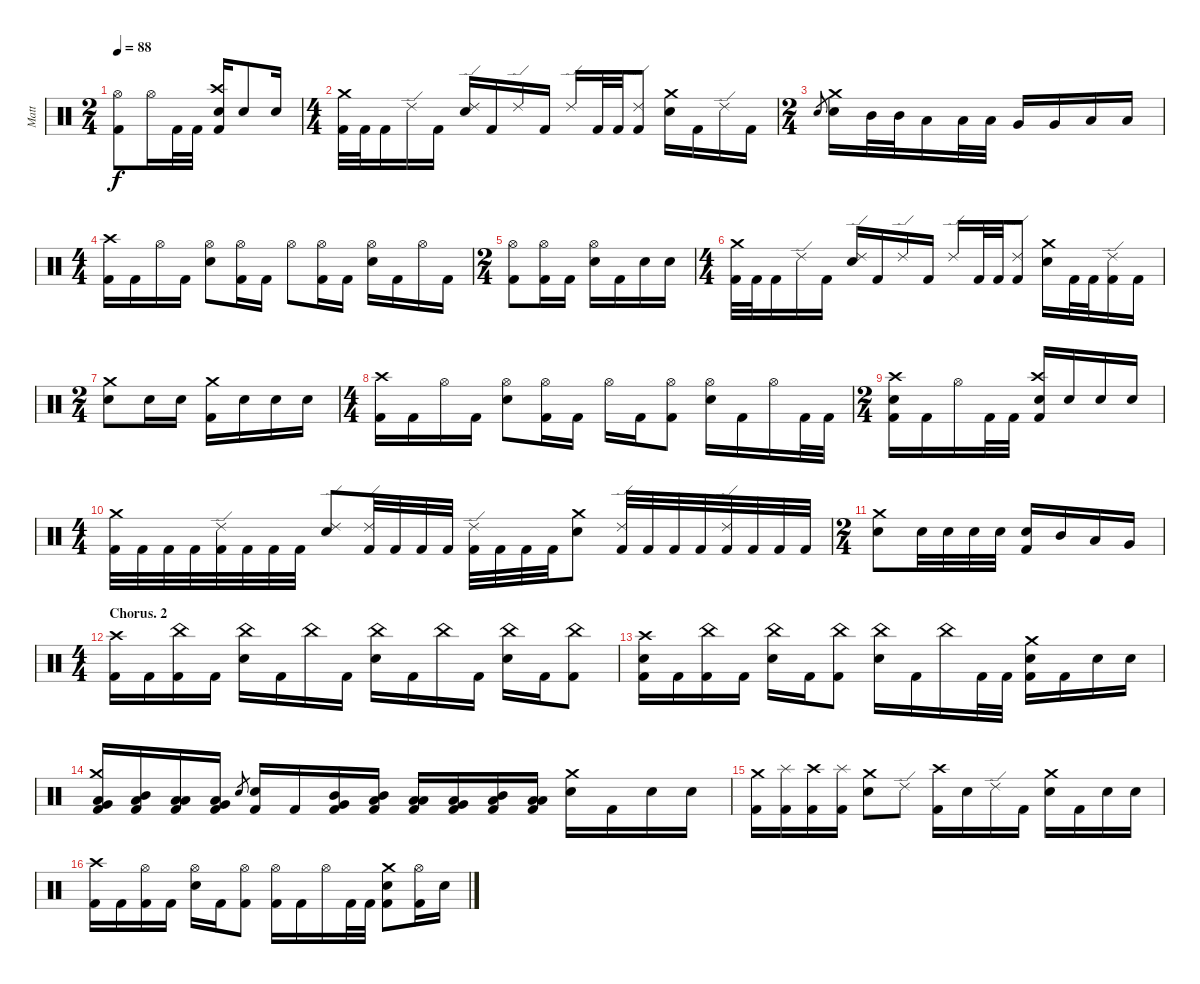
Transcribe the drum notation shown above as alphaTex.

\track ("Matt" "Matt") {instrument percussion}
\staff {score}
\articulation defaults
\ts (2 4)
\tempo 88
\clef neutral
\ks c
("Hi-Hat (open)" "Kick (hit) 2").8{dy f} "Hi-Hat (open)".16 "Kick (hit) 2".32 "Kick (hit) 2".32 ("Crash high (hit)" "Electric Snare (hit)" "Kick (hit) 2").16 "Electric Snare (hit)".8 "Electric Snare (hit)".16 |
\ts (4 4)
("Crash medium (hit)" "Kick (hit) 2").32 "Kick (hit) 2".32 "Kick (hit) 2".16 "Ride (edge) 2".16 "Kick (hit) 2".16 ("Ride (edge) 2" "Electric Snare (hit)").16 "Kick (hit) 2".16 "Ride (edge) 2".16 "Kick (hit) 2".16 "Ride (edge) 2".16 "Kick (hit) 2".32 "Kick (hit) 2".32 ("Ride (edge) 2" "Kick (hit) 2").8 ("Crash medium (hit)" "Electric Snare (hit)").16 "Kick (hit) 2".16 "Ride (edge) 2".16 "Kick (hit) 2".16 |
\ts (2 4)
"Electric Snare (hit)".8{gr} ("Crash medium (hit)" "Electric Snare (hit)").16 "Mid Tom (hit)".32 "Mid Tom (hit)".32 "Low Tom (hit)".16 "Low Tom (hit)".32 "Low Tom (hit)".32 "Very Low Tom (hit)".16 "Very Low Tom (hit)".16 "Low Floor Tom (hit)".16 "Low Floor Tom (hit)".16 |
\ts (4 4)
("Crash high (hit)" "Kick (hit) 2").16 "Kick (hit) 2".16 "Hi-Hat (open)".16 "Kick (hit) 2".16 ("Hi-Hat (open)" "Electric Snare (hit)").8 ("Hi-Hat (open)" "Kick (hit) 2").16 "Kick (hit) 2".16 "Hi-Hat (open)".8 ("Hi-Hat (open)" "Kick (hit) 2").16 "Kick (hit) 2".16 ("Hi-Hat (open)" "Electric Snare (hit)").16 "Kick (hit) 2".16 "Hi-Hat (open)".16 "Kick (hit) 2".16 |
\ts (2 4)
("Hi-Hat (open)" "Kick (hit) 2").8 ("Hi-Hat (open)" "Kick (hit) 2").16 "Kick (hit) 2".16 ("Hi-Hat (open)" "Electric Snare (hit)").16 "Kick (hit) 2".16 "Electric Snare (hit)".16 "Electric Snare (hit)".16 |
\ts (4 4)
("Crash medium (hit)" "Kick (hit) 2").32 "Kick (hit) 2".32 "Kick (hit) 2".16 "Ride (edge) 2".16 "Kick (hit) 2".16 ("Ride (edge) 2" "Electric Snare (hit)").16 "Kick (hit) 2".16 "Ride (edge) 2".16 "Kick (hit) 2".16 "Ride (edge) 2".16 "Kick (hit) 2".32 "Kick (hit) 2".32 ("Ride (edge) 2" "Kick (hit) 2").8 ("Crash medium (hit)" "Electric Snare (hit)").16 "Kick (hit) 2".32 "Kick (hit) 2".32 ("Ride (edge) 2" "Kick (hit) 2").16 "Kick (hit) 2".16 |
\ts (2 4)
("Crash medium (hit)" "Electric Snare (hit)").8 "Electric Snare (hit)".16 "Electric Snare (hit)".16 ("Crash medium (hit)" "Kick (hit) 2").16 "Electric Snare (hit)".16 "Electric Snare (hit)".16 "Electric Snare (hit)".16 |
\ts (4 4)
("Crash high (hit)" "Kick (hit) 2").16 "Kick (hit) 2".16 "Hi-Hat (open)".16 "Kick (hit) 2".16 ("Hi-Hat (open)" "Electric Snare (hit)").8 ("Hi-Hat (open)" "Kick (hit) 2").16 "Kick (hit) 2".16 "Hi-Hat (open)".16 "Kick (hit) 2".16 ("Hi-Hat (open)" "Kick (hit) 2").8 ("Hi-Hat (open)" "Electric Snare (hit)").16 "Kick (hit) 2".16 "Hi-Hat (open)".16 "Kick (hit) 2".32 "Kick (hit) 2".32 |
\ts (2 4)
("Crash high (hit)" "Electric Snare (hit)" "Kick (hit) 2").16 "Kick (hit) 2".16 "Hi-Hat (open)".16 "Kick (hit) 2".32 "Kick (hit) 2".32 ("Crash high (hit)" "Electric Snare (hit)" "Kick (hit) 2").16 "Electric Snare (hit)".16 "Electric Snare (hit)".16 "Electric Snare (hit)".16 |
\ts (4 4)
("Crash medium (hit)" "Kick (hit) 2").32 "Kick (hit) 2".32 "Kick (hit) 2".32 "Kick (hit) 2".32 ("Ride (edge) 2" "Kick (hit) 2").32 "Kick (hit) 2".32 "Kick (hit) 2".32 "Kick (hit) 2".32 ("Ride (edge) 2" "Electric Snare (hit)").8 ("Ride (edge) 2" "Kick (hit) 2").32 "Kick (hit) 2".32 "Kick (hit) 2".32 "Kick (hit) 2".32 ("Ride (edge) 2" "Kick (hit) 2").32 "Kick (hit) 2".32 "Kick (hit) 2".32 "Kick (hit) 2".32 ("Crash medium (hit)" "Electric Snare (hit)").8 ("Ride (edge) 2" "Kick (hit) 2").32 "Kick (hit) 2".32 "Kick (hit) 2".32 "Kick (hit) 2".32 ("Ride (edge) 2" "Kick (hit) 2").32 "Kick (hit) 2".32 "Kick (hit) 2".32 "Kick (hit) 2".32 |
\ts (2 4)
("Crash medium (hit)" "Electric Snare (hit)").8 "Electric Snare (hit)".32 "Electric Snare (hit)".32 "Electric Snare (hit)".32 "Electric Snare (hit)".32 ("Electric Snare (hit)" "Kick (hit) 2").16 "Mid Tom (hit)".16 "Low Tom (hit)".16 "Very Low Tom (hit)".16 |
\ts (4 4)
\section ("" "Chorus. 2")
("Crash high (hit)" "Kick (hit) 2").16 "Kick (hit) 2".16 ("China (hit)" "Kick (hit) 2").16 "Kick (hit) 2".16 ("China (hit)" "Electric Snare (hit)").16 "Kick (hit) 2".16 "China (hit)".16 "Kick (hit) 2".16 ("China (hit)" "Electric Snare (hit)").16 "Kick (hit) 2".16 "China (hit)".16 "Kick (hit) 2".16 ("China (hit)" "Electric Snare (hit)").16 "Kick (hit) 2".16 ("China (hit)" "Kick (hit) 2").8 |
("Crash high (hit)" "Electric Snare (hit)" "Kick (hit) 2").16 "Kick (hit) 2".16 ("China (hit)" "Kick (hit) 2").16 "Kick (hit) 2".16 ("China (hit)" "Electric Snare (hit)").16 "Kick (hit) 2".16 ("China (hit)" "Kick (hit) 2").8 ("China (hit)" "Electric Snare (hit)").16 "Kick (hit) 2".16 "China (hit)".16 "Kick (hit) 2".32 "Kick (hit) 2".32 ("Crash medium (hit)" "Electric Snare (hit)" "Kick (hit) 2").16 "Kick (hit) 2".16 "Electric Snare (hit)".16 "Electric Snare (hit)".16 |
("Crash medium (hit)" "Low Tom (hit)" "Very Low Tom (hit)" "Kick (hit) 2").16 ("Low Tom (hit)" "Mid Tom (hit)" "Kick (hit) 2").16 ("Low Tom (hit)" "Low Tom (hit)" "Kick (hit) 2").16 ("Low Tom (hit)" "Very Low Tom (hit)" "Kick (hit) 2").16 "Electric Snare (hit)".8{gr} ("Electric Snare (hit)" "Kick (hit) 2").16 "Kick (hit) 2".16 ("Mid Tom (hit)" "Very Low Tom (hit)" "Kick (hit) 2").16 ("Low Tom (hit)" "Mid Tom (hit)" "Kick (hit) 2").16 ("Low Tom (hit)" "Low Tom (hit)" "Kick (hit) 2").16 ("Low Tom (hit)" "Very Low Tom (hit)" "Kick (hit) 2").16 ("Low Tom (hit)" "Mid Tom (hit)" "Kick (hit) 2").16 ("Low Tom (hit)" "Low Tom (hit)" "Kick (hit) 2").16 ("Crash medium (hit)" "Electric Snare (hit)").16 "Kick (hit) 2".16 "Electric Snare (hit)".16 "Electric Snare (hit)".16 |
("Crash medium (hit)" "Kick (hit) 2").16 ("Splash (hit)" "Kick (hit) 2").16 ("Crash high (hit)" "Kick (hit) 2").16 ("Splash (hit)" "Kick (hit) 2").16 ("Crash medium (hit)" "Electric Snare (hit)").8 "Ride (edge) 2".8 ("Crash high (hit)" "Kick (hit) 2").16 "Electric Snare (hit)".16 "Ride (edge) 2".16 "Kick (hit) 2".16 ("Crash medium (hit)" "Electric Snare (hit)").16 "Kick (hit) 2".16 "Electric Snare (hit)".16 "Electric Snare (hit)".16 |
("Crash high (hit)" "Kick (hit) 2").16 "Kick (hit) 2".16 ("Hi-Hat (open)" "Kick (hit) 2").16 "Kick (hit) 2".16 ("Hi-Hat (open)" "Electric Snare (hit)").16 "Kick (hit) 2".16 ("Hi-Hat (open)" "Kick (hit) 2").8 ("Hi-Hat (open)" "Kick (hit) 2").16 "Kick (hit) 2".16 "Hi-Hat (open)".16 "Kick (hit) 2".32 "Kick (hit) 2".32 ("Crash medium (hit)" "Electric Snare (hit)" "Kick (hit) 2").8 ("Hi-Hat (open)" "Kick (hit) 2").16 "Electric Snare (hit)".16
